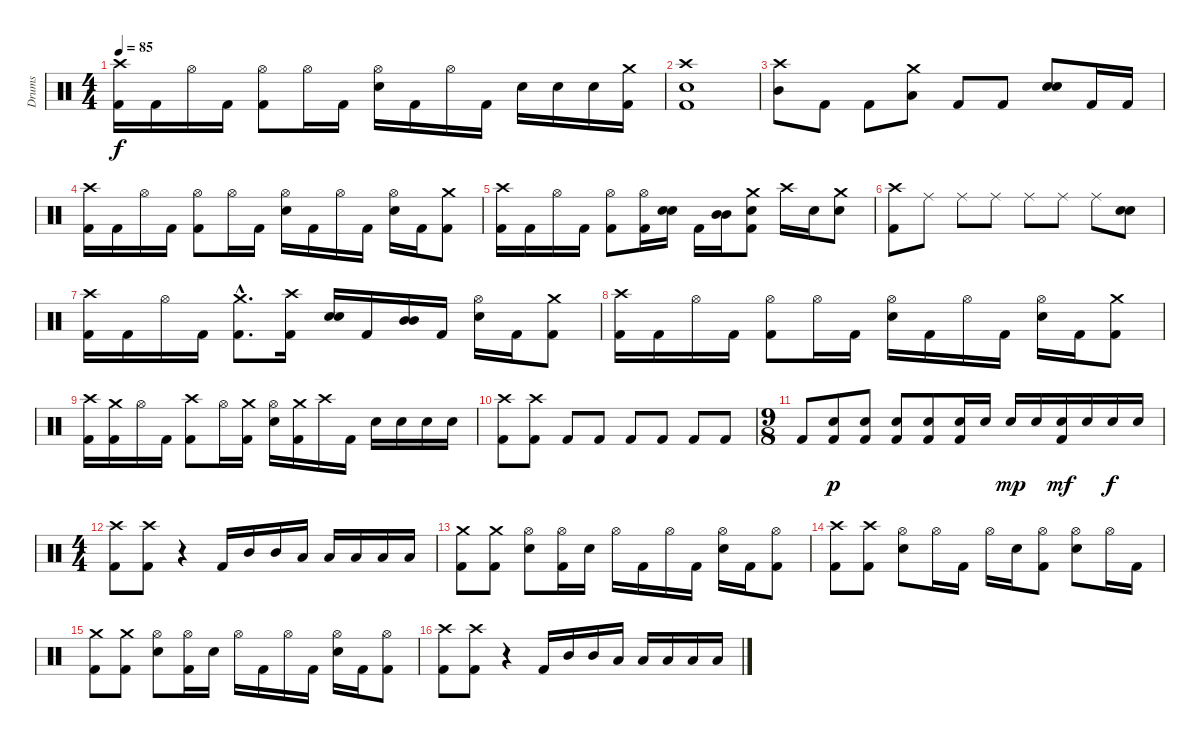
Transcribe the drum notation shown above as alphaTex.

\track ("Drums" "Drums") {instrument percussion}
\staff {score}
\articulation defaults
\ts (4 4)
\tempo 85
\clef neutral
\ks c
("Crash high (hit)" "Kick (hit) 2").16{dy f} "Kick (hit) 2".16 "Hi-Hat (open)".16 "Kick (hit) 2".16 ("Hi-Hat (open)" "Kick (hit) 2").8 "Hi-Hat (open)".16 "Kick (hit) 2".16 ("Hi-Hat (open)" "Snare (hit) 2").16 "Kick (hit) 2".16 "Hi-Hat (open)".16 "Kick (hit) 2".16 "Snare (hit) 2".16 "Snare (hit) 2".16 "Snare (hit) 2".16 ("Crash medium (hit)" "Kick (hit) 2").16 |
("Crash high (hit)" "Snare (hit) 2" "Kick (hit) 2").1 |
("Crash high (hit)" "Mid Tom (hit)").8 "Kick (hit) 2".8 "Kick (hit) 2".8 ("Crash medium (hit)" "Low Tom (hit)").8 "Kick (hit) 2".8 "Kick (hit) 2".8 ("Snare (hit) 2" "Snare (hit) 2").8{bd 240} "Kick (hit) 2".16 "Kick (hit) 2".16 |
("Crash high (hit)" "Kick (hit) 2").16 "Kick (hit) 2".16 "Hi-Hat (open)".16 "Kick (hit) 2".16 ("Hi-Hat (open)" "Kick (hit) 2").8 "Hi-Hat (open)".16 "Kick (hit) 2".16 ("Hi-Hat (open)" "Snare (hit) 2").16 "Kick (hit) 2".16 "Hi-Hat (open)".16 "Kick (hit) 2".16 ("Hi-Hat (open)" "Snare (hit) 2").16 "Kick (hit) 2".16 ("Crash medium (hit)" "Kick (hit) 2").8 |
("Crash high (hit)" "Kick (hit) 2").16 "Kick (hit) 2".16 "Hi-Hat (open)".16 "Kick (hit) 2".16 ("Hi-Hat (open)" "Kick (hit) 2").8 ("Hi-Hat (open)" "Kick (hit) 2").16 ("Snare (hit) 2" "Snare (hit) 2").16{bd 240} "Kick (hit) 2".16 ("Mid Tom (hit)" "Mid Tom (hit)").16{bd 240} ("Crash medium (hit)" "Snare (hit) 2" "Kick (hit) 2").8 "Crash high (hit)".16 "Snare (hit) 2".16 ("Crash medium (hit)" "Snare (hit) 2").8 |
("Crash high (hit)" "Kick (hit) 2").8 "Ride (middle)".8 "Ride (middle)".8 "Ride (middle)".8 "Ride (middle)".8 "Ride (middle)".8 "Ride (middle)".8 ("Snare (hit) 2" "Snare (hit) 2").8{bd 240} |
("Crash high (hit)" "Kick (hit) 2").16 "Kick (hit) 2".16 "Hi-Hat (open)".16 "Kick (hit) 2".16 ("Crash medium (hit)"{hac} "Kick (hit) 2"{hac}).8{d} ("Crash high (hit)" "Kick (hit) 2").16 ("Snare (hit) 2" "Snare (hit) 2").16{bd 240} "Kick (hit) 2".16 ("Mid Tom (hit)" "Mid Tom (hit)").16{bd 240} "Kick (hit) 2".16 ("Hi-Hat (open)" "Snare (hit) 2").16 "Kick (hit) 2".16 ("Crash medium (hit)" "Kick (hit) 2").8 |
("Crash high (hit)" "Kick (hit) 2").16 "Kick (hit) 2".16 "Hi-Hat (open)".16 "Kick (hit) 2".16 ("Hi-Hat (open)" "Kick (hit) 2").8 "Hi-Hat (open)".16 "Kick (hit) 2".16 ("Hi-Hat (open)" "Snare (hit) 2").16 "Kick (hit) 2".16 "Hi-Hat (open)".16 "Kick (hit) 2".16 ("Hi-Hat (open)" "Snare (hit) 2").16 "Kick (hit) 2".16 ("Crash medium (hit)" "Kick (hit) 2").8 |
("Crash high (hit)" "Kick (hit) 2").16 ("Crash medium (hit)" "Kick (hit) 2").16 "Hi-Hat (open)".16 "Kick (hit) 2".16 ("Crash high (hit)" "Kick (hit) 2").8 "Hi-Hat (open)".16 ("Crash medium (hit)" "Kick (hit) 2").16 ("Hi-Hat (open)" "Snare (hit) 2").16 ("Crash medium (hit)" "Kick (hit) 2").16 "Crash high (hit)".16 "Kick (hit) 2".16 "Snare (hit) 2".16 "Snare (hit) 2".16 "Snare (hit) 2".16 "Snare (hit) 2".16 |
("Crash high (hit)" "Kick (hit) 2").8 ("Crash high (hit)" "Kick (hit) 2").8 "Kick (hit) 2".8 "Kick (hit) 2".8 "Kick (hit) 2".8 "Kick (hit) 2".8 "Kick (hit) 2".8 "Kick (hit) 2".8 |
\ts (9 8)
"Kick (hit) 2".8 ("Snare (hit) 2" "Kick (hit) 2").8{dy p} ("Snare (hit) 2" "Kick (hit) 2").8 ("Snare (hit) 2" "Kick (hit) 2").8 ("Snare (hit) 2" "Kick (hit) 2").8 ("Snare (hit) 2" "Kick (hit) 2").16 "Snare (hit) 2".16 "Snare (hit) 2".16{dy mp} "Snare (hit) 2".16 ("Snare (hit) 2" "Kick (hit) 2").16{dy mf} "Snare (hit) 2".16 "Snare (hit) 2".16{dy f} "Snare (hit) 2".16 |
\ts (4 4)
("Crash high (hit)" "Kick (hit) 2").8 ("Crash high (hit)" "Kick (hit) 2").8 r.4 "Kick (hit) 2".16 "Mid Tom (hit)".16 "Mid Tom (hit)".16 "Low Tom (hit)".16 "Low Tom (hit)".16 "Low Floor Tom (hit)".16 "Low Floor Tom (hit)".16 "Low Floor Tom (hit)".16 |
("Crash medium (hit)" "Kick (hit) 2").8 ("Crash medium (hit)" "Kick (hit) 2").8 ("Hi-Hat (open)" "Snare (hit) 2").8 ("Hi-Hat (open)" "Kick (hit) 2").16 "Snare (hit) 2".16 "Hi-Hat (open)".16 "Kick (hit) 2".16 "Hi-Hat (open)".16 "Kick (hit) 2".16 ("Hi-Hat (open)" "Snare (hit) 2").16 "Kick (hit) 2".16 ("Hi-Hat (open)" "Kick (hit) 2").8 |
("Crash high (hit)" "Kick (hit) 2").8 ("Crash high (hit)" "Kick (hit) 2").8 ("Hi-Hat (open)" "Snare (hit) 2").8 "Hi-Hat (open)".16 "Kick (hit) 2".16 "Hi-Hat (open)".16 "Snare (hit) 2".16 ("Hi-Hat (open)" "Kick (hit) 2").8 ("Hi-Hat (open)" "Snare (hit) 2").8 "Hi-Hat (open)".16 "Kick (hit) 2".16 |
("Crash medium (hit)" "Kick (hit) 2").8 ("Crash medium (hit)" "Kick (hit) 2").8 ("Hi-Hat (open)" "Snare (hit) 2").8 ("Hi-Hat (open)" "Kick (hit) 2").16 "Snare (hit) 2".16 "Hi-Hat (open)".16 "Kick (hit) 2".16 "Hi-Hat (open)".16 "Kick (hit) 2".16 ("Hi-Hat (open)" "Snare (hit) 2").16 "Kick (hit) 2".16 ("Hi-Hat (open)" "Kick (hit) 2").8 |
("Crash high (hit)" "Kick (hit) 2").8 ("Crash high (hit)" "Kick (hit) 2").8 r.4 "Kick (hit) 2".16 "Mid Tom (hit)".16 "Mid Tom (hit)".16 "Low Tom (hit)".16 "Low Tom (hit)".16 "Low Floor Tom (hit)".16 "Low Floor Tom (hit)".16 "Low Floor Tom (hit)".16
